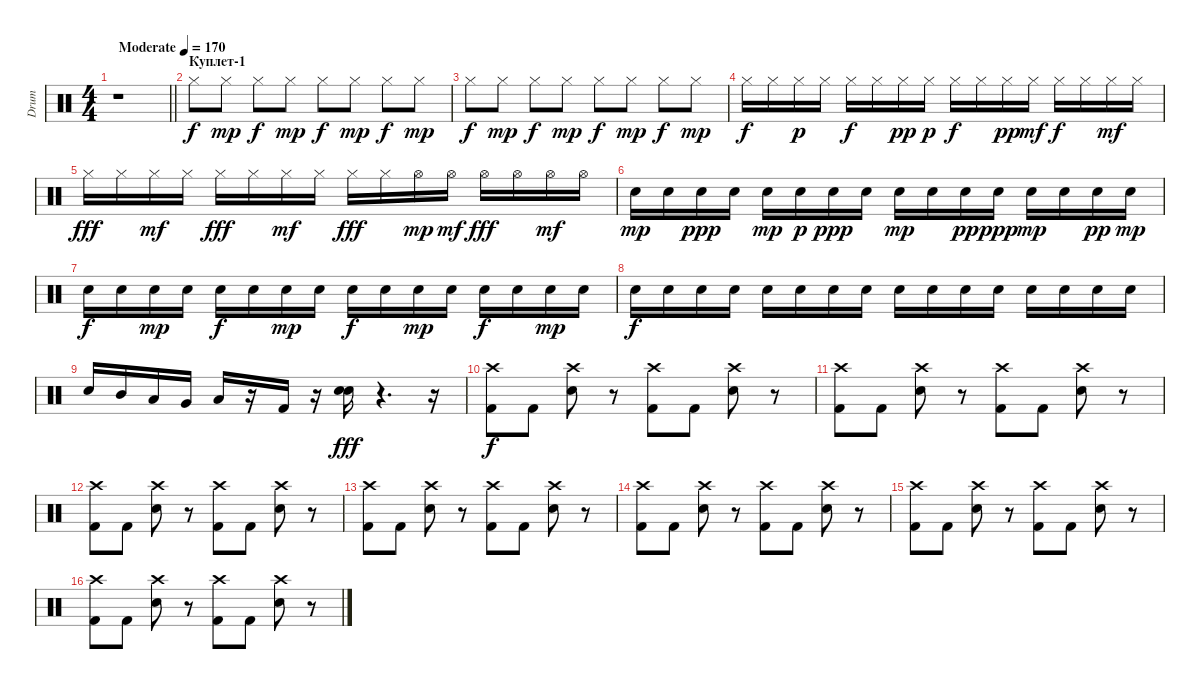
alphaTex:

\track ("Drum" "Drum") {instrument percussion}
\staff {score}
\articulation defaults
\ts (4 4)
\tempo (170 "Moderate")
\clef neutral
\barLineRight lightlight
\ks c
r.1{dy f} |
\section ("" "Куплет-1")
"Hi-Hat (closed)".8 "Hi-Hat (closed)".8{dy mp} "Hi-Hat (closed)".8{dy f} "Hi-Hat (closed)".8{dy mp} "Hi-Hat (closed)".8{dy f} "Hi-Hat (closed)".8{dy mp} "Hi-Hat (closed)".8{dy f} "Hi-Hat (closed)".8{dy mp} |
"Hi-Hat (closed)".8{dy f} "Hi-Hat (closed)".8{dy mp} "Hi-Hat (closed)".8{dy f} "Hi-Hat (closed)".8{dy mp} "Hi-Hat (closed)".8{dy f} "Hi-Hat (closed)".8{dy mp} "Hi-Hat (closed)".8{dy f} "Hi-Hat (closed)".8{dy mp} |
"Hi-Hat (closed)".16{dy f} "Hi-Hat (closed)".16 "Hi-Hat (closed)".16{dy p} "Hi-Hat (closed)".16 "Hi-Hat (closed)".16{dy f} "Hi-Hat (closed)".16 "Hi-Hat (closed)".16{dy pp} "Hi-Hat (closed)".16{dy p} "Hi-Hat (closed)".16{dy f} "Hi-Hat (closed)".16 "Hi-Hat (closed)".16{dy pp} "Hi-Hat (closed)".16{dy mf} "Hi-Hat (closed)".16{dy f} "Hi-Hat (closed)".16 "Hi-Hat (closed)".16{dy mf} "Hi-Hat (closed)".16 |
"Hi-Hat (closed)".16{dy fff} "Hi-Hat (closed)".16 "Hi-Hat (closed)".16{dy mf} "Hi-Hat (closed)".16 "Hi-Hat (closed)".16{dy fff} "Hi-Hat (closed)".16 "Hi-Hat (closed)".16{dy mf} "Hi-Hat (closed)".16 "Hi-Hat (closed)".16{dy fff} "Hi-Hat (closed)".16 "Hi-Hat (open)".16{dy mp} "Hi-Hat (open)".16{dy mf} "Hi-Hat (open)".16{dy fff} "Hi-Hat (open)".16 "Hi-Hat (open)".16{dy mf} "Hi-Hat (open)".16 |
"Snare (hit) 2".16{dy mp} "Snare (hit) 2".16 "Snare (hit) 2".16{dy ppp} "Snare (hit) 2".16 "Snare (hit) 2".16{dy mp} "Snare (hit) 2".16{dy p} "Snare (hit) 2".16{dy ppp} "Snare (hit) 2".16 "Snare (hit) 2".16{dy mp} "Snare (hit) 2".16 "Snare (hit) 2".16{dy pp} "Snare (hit) 2".16{dy ppp} "Snare (hit) 2".16{dy mp} "Snare (hit) 2".16 "Snare (hit) 2".16{dy pp} "Snare (hit) 2".16{dy mp} |
"Snare (hit) 2".16{dy f} "Snare (hit) 2".16 "Snare (hit) 2".16{dy mp} "Snare (hit) 2".16 "Snare (hit) 2".16{dy f} "Snare (hit) 2".16 "Snare (hit) 2".16{dy mp} "Snare (hit) 2".16 "Snare (hit) 2".16{dy f} "Snare (hit) 2".16 "Snare (hit) 2".16{dy mp} "Snare (hit) 2".16 "Snare (hit) 2".16{dy f} "Snare (hit) 2".16 "Snare (hit) 2".16{dy mp} "Snare (hit) 2".16 |
"Snare (hit) 2".16{dy f} "Snare (hit) 2".16 "Snare (hit) 2".16 "Snare (hit) 2".16 "Snare (hit) 2".16 "Snare (hit) 2".16 "Snare (hit) 2".16 "Snare (hit) 2".16 "Snare (hit) 2".16 "Snare (hit) 2".16 "Snare (hit) 2".16 "Snare (hit) 2".16 "Snare (hit) 2".16 "Snare (hit) 2".16 "Snare (hit) 2".16 "Snare (hit) 2".16 |
"Snare (hit) 2".16 "Mid Tom (hit)".16 "Low Tom (hit)".16 "Very Low Tom (hit)".16 "Low Floor Tom (hit)".16 r.16 "Kick (hit) 2".16 r.16 ("Snare (hit) 2" "Electric Snare (hit)").16{dy fff} r.4{d} r.16 |
("Crash high (hit)" "Kick (hit) 2").8{dy f} "Kick (hit) 2".8 ("Crash high (hit)" "Snare (hit) 2").8 r.8 ("Crash high (hit)" "Kick (hit) 2").8 "Kick (hit) 2".8 ("Crash high (hit)" "Snare (hit) 2").8 r.8 |
("Crash high (hit)" "Kick (hit) 2").8 "Kick (hit) 2".8 ("Crash high (hit)" "Snare (hit) 2").8 r.8 ("Crash high (hit)" "Kick (hit) 2").8 "Kick (hit) 2".8 ("Crash high (hit)" "Snare (hit) 2").8 r.8 |
("Crash high (hit)" "Kick (hit) 2").8 "Kick (hit) 2".8 ("Crash high (hit)" "Snare (hit) 2").8 r.8 ("Crash high (hit)" "Kick (hit) 2").8 "Kick (hit) 2".8 ("Crash high (hit)" "Snare (hit) 2").8 r.8 |
("Crash high (hit)" "Kick (hit) 2").8 "Kick (hit) 2".8 ("Crash high (hit)" "Snare (hit) 2").8 r.8 ("Crash high (hit)" "Kick (hit) 2").8 "Kick (hit) 2".8 ("Crash high (hit)" "Snare (hit) 2").8 r.8 |
("Crash high (hit)" "Kick (hit) 2").8 "Kick (hit) 2".8 ("Crash high (hit)" "Snare (hit) 2").8 r.8 ("Crash high (hit)" "Kick (hit) 2").8 "Kick (hit) 2".8 ("Crash high (hit)" "Snare (hit) 2").8 r.8 |
("Crash high (hit)" "Kick (hit) 2").8 "Kick (hit) 2".8 ("Crash high (hit)" "Snare (hit) 2").8 r.8 ("Crash high (hit)" "Kick (hit) 2").8 "Kick (hit) 2".8 ("Crash high (hit)" "Snare (hit) 2").8 r.8 |
("Crash high (hit)" "Kick (hit) 2").8 "Kick (hit) 2".8 ("Crash high (hit)" "Snare (hit) 2").8 r.8 ("Crash high (hit)" "Kick (hit) 2").8 "Kick (hit) 2".8 ("Crash high (hit)" "Snare (hit) 2").8 r.8
